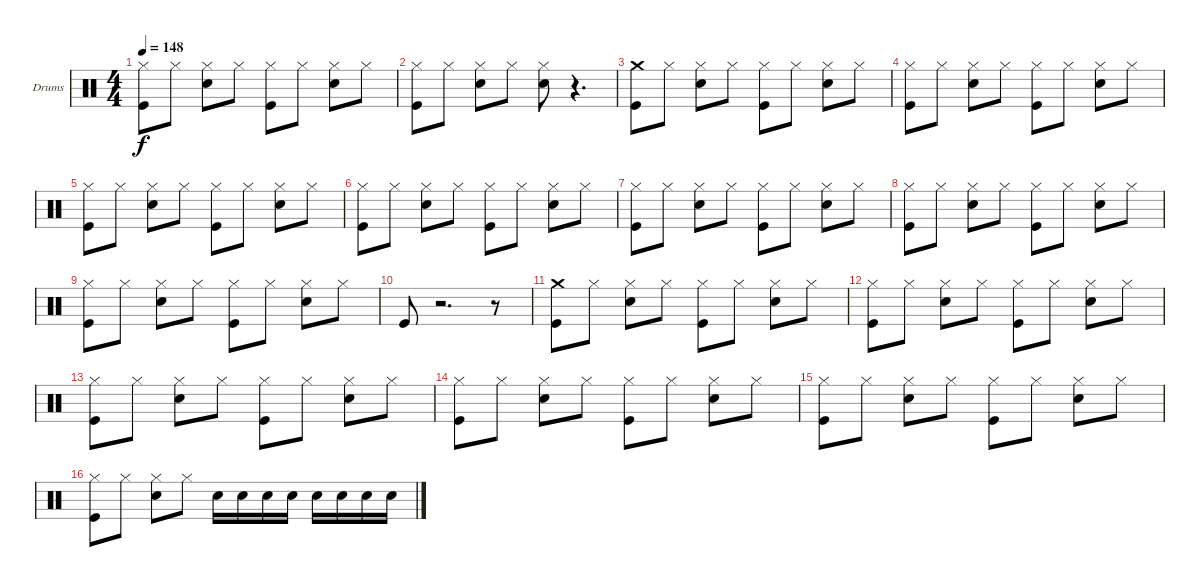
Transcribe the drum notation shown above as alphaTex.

\defaultSystemsLayout 4
\bracketExtendMode groupsimilarinstruments
\firstSystemTrackNameOrientation horizontal
\otherSystemsTrackNameOrientation horizontal
\track ("Нюта" "Drums") {instrument percussion}
\staff {score}
\articulation defaults
\ts (4 4)
\tempo 148
\clef neutral
\scale
0.333333
\ks c
("Hi-Hat (closed)" "Kick (hit)").8{dy f} "Hi-Hat (closed)".8 ("Hi-Hat (closed)" "Snare (hit) 2").8 "Hi-Hat (closed)".8 ("Hi-Hat (closed)" "Kick (hit)").8 "Hi-Hat (closed)".8 ("Hi-Hat (closed)" "Snare (hit) 2").8 "Hi-Hat (closed)".8 |
\scale
0.333333 ("Hi-Hat (closed)" "Kick (hit)").8 "Hi-Hat (closed)".8 ("Hi-Hat (closed)" "Snare (hit) 2").8 "Hi-Hat (closed)".8 ("Hi-Hat (closed)" "Snare (hit) 2").8 r.4{d} |
\scale
0.333333 ("Crash medium (hit)" "Kick (hit)").8 "Hi-Hat (closed)".8 ("Hi-Hat (closed)" "Snare (hit) 2").8 "Hi-Hat (closed)".8 ("Hi-Hat (closed)" "Kick (hit)").8 "Hi-Hat (closed)".8 ("Hi-Hat (closed)" "Snare (hit) 2").8 "Hi-Hat (closed)".8 |
\scale
0.333333 ("Hi-Hat (closed)" "Kick (hit)").8 "Hi-Hat (closed)".8 ("Hi-Hat (closed)" "Snare (hit) 2").8 "Hi-Hat (closed)".8 ("Hi-Hat (closed)" "Kick (hit)").8 "Hi-Hat (closed)".8 ("Hi-Hat (closed)" "Snare (hit) 2").8 "Hi-Hat (closed)".8 |
\scale
0.333333 ("Hi-Hat (closed)" "Kick (hit)").8 "Hi-Hat (closed)".8 ("Hi-Hat (closed)" "Snare (hit) 2").8 "Hi-Hat (closed)".8 ("Hi-Hat (closed)" "Kick (hit)").8 "Hi-Hat (closed)".8 ("Hi-Hat (closed)" "Snare (hit) 2").8 "Hi-Hat (closed)".8 |
\scale
0.333333 ("Hi-Hat (closed)" "Kick (hit)").8 "Hi-Hat (closed)".8 ("Hi-Hat (closed)" "Snare (hit) 2").8 "Hi-Hat (closed)".8 ("Hi-Hat (closed)" "Kick (hit)").8 "Hi-Hat (closed)".8 ("Hi-Hat (closed)" "Snare (hit) 2").8 "Hi-Hat (closed)".8 |
\scale
0.333333 ("Hi-Hat (closed)" "Kick (hit)").8 "Hi-Hat (closed)".8 ("Hi-Hat (closed)" "Snare (hit) 2").8 "Hi-Hat (closed)".8 ("Hi-Hat (closed)" "Kick (hit)").8 "Hi-Hat (closed)".8 ("Hi-Hat (closed)" "Snare (hit) 2").8 "Hi-Hat (closed)".8 |
\scale
0.333333 ("Hi-Hat (closed)" "Kick (hit)").8 "Hi-Hat (closed)".8 ("Hi-Hat (closed)" "Snare (hit) 2").8 "Hi-Hat (closed)".8 ("Hi-Hat (closed)" "Kick (hit)").8 "Hi-Hat (closed)".8 ("Hi-Hat (closed)" "Snare (hit) 2").8 "Hi-Hat (closed)".8 |
\scale
0.333333 ("Hi-Hat (closed)" "Kick (hit)").8 "Hi-Hat (closed)".8 ("Hi-Hat (closed)" "Snare (hit) 2").8 "Hi-Hat (closed)".8 ("Hi-Hat (closed)" "Kick (hit)").8 "Hi-Hat (closed)".8 ("Hi-Hat (closed)" "Snare (hit) 2").8 "Hi-Hat (closed)".8 |
\scale
0.333333 "Kick (hit)".8 r.2{d} r.8 |
\scale
0.333333 ("Crash medium (hit)" "Kick (hit)").8 "Hi-Hat (closed)".8 ("Hi-Hat (closed)" "Snare (hit) 2").8 "Hi-Hat (closed)".8 ("Hi-Hat (closed)" "Kick (hit)").8 "Hi-Hat (closed)".8 ("Hi-Hat (closed)" "Snare (hit) 2").8 "Hi-Hat (closed)".8 |
\scale
0.333333 ("Hi-Hat (closed)" "Kick (hit)").8 "Hi-Hat (closed)".8 ("Hi-Hat (closed)" "Snare (hit) 2").8 "Hi-Hat (closed)".8 ("Hi-Hat (closed)" "Kick (hit)").8 "Hi-Hat (closed)".8 ("Hi-Hat (closed)" "Snare (hit) 2").8 "Hi-Hat (closed)".8 |
\scale
0.333333 ("Hi-Hat (closed)" "Kick (hit)").8 "Hi-Hat (closed)".8 ("Hi-Hat (closed)" "Snare (hit) 2").8 "Hi-Hat (closed)".8 ("Hi-Hat (closed)" "Kick (hit)").8 "Hi-Hat (closed)".8 ("Hi-Hat (closed)" "Snare (hit) 2").8 "Hi-Hat (closed)".8 |
\scale
0.333333 ("Hi-Hat (closed)" "Kick (hit)").8 "Hi-Hat (closed)".8 ("Hi-Hat (closed)" "Snare (hit) 2").8 "Hi-Hat (closed)".8 ("Hi-Hat (closed)" "Kick (hit)").8 "Hi-Hat (closed)".8 ("Hi-Hat (closed)" "Snare (hit) 2").8 "Hi-Hat (closed)".8 |
\scale
0.333333 ("Hi-Hat (closed)" "Kick (hit)").8 "Hi-Hat (closed)".8 ("Hi-Hat (closed)" "Snare (hit) 2").8 "Hi-Hat (closed)".8 ("Hi-Hat (closed)" "Kick (hit)").8 "Hi-Hat (closed)".8 ("Hi-Hat (closed)" "Snare (hit) 2").8 "Hi-Hat (closed)".8 |
\scale
0.333333 ("Hi-Hat (closed)" "Kick (hit)").8 "Hi-Hat (closed)".8 ("Hi-Hat (closed)" "Snare (hit) 2").8 "Hi-Hat (closed)".8 "Snare (hit) 2".16 "Snare (hit) 2".16 "Snare (hit) 2".16 "Snare (hit) 2".16 "Snare (hit) 2".16 "Snare (hit) 2".16 "Snare (hit) 2".16 "Snare (hit) 2".16
